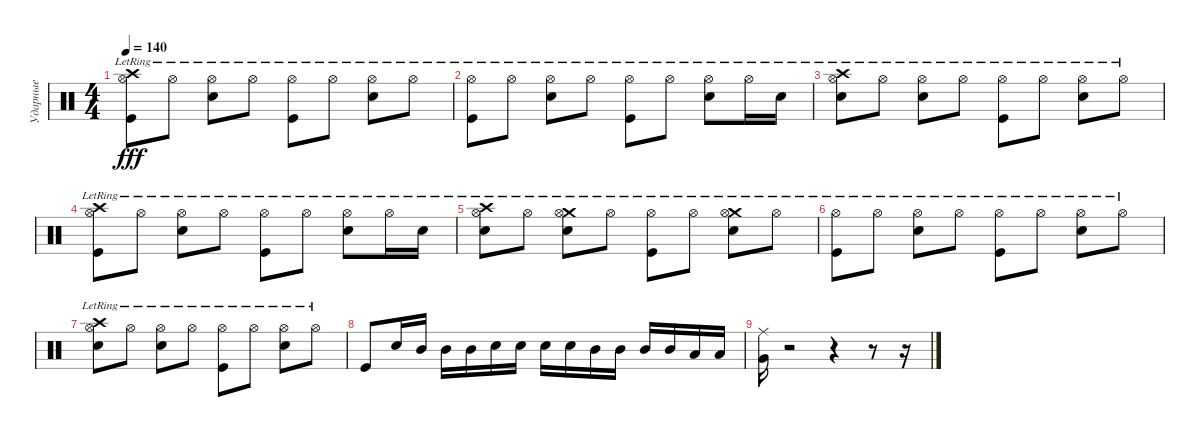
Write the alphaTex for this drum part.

\track ("Ударные" "Ударные") {instrument percussion}
\staff {score}
\articulation defaults
\ts (4 4)
\tempo 140
\clef neutral
\ks c
("Crash high (hit)"{lr} "Kick (hit)"{lr} "Hi-Hat (open)"{lr}).8{dy fff} "Hi-Hat (open)"{lr}.8 ("Electric Snare (hit)"{lr} "Hi-Hat (open)"{lr}).8 "Hi-Hat (open)"{lr}.8 ("Kick (hit)"{lr} "Hi-Hat (open)"{lr}).8 "Hi-Hat (open)"{lr}.8 ("Electric Snare (hit)"{lr} "Hi-Hat (open)"{lr}).8 "Hi-Hat (open)"{lr}.8 |
("Kick (hit)"{lr} "Hi-Hat (open)"{lr}).8 "Hi-Hat (open)"{lr}.8 ("Electric Snare (hit)"{lr} "Hi-Hat (open)"{lr}).8 "Hi-Hat (open)"{lr}.8 ("Kick (hit)"{lr} "Hi-Hat (open)"{lr}).8 "Hi-Hat (open)"{lr}.8 ("Electric Snare (hit)"{lr} "Hi-Hat (open)"{lr}).8 "Hi-Hat (open)"{lr}.16 "Electric Snare (hit)"{lr}.16 |
("Crash high (hit)"{lr} "Electric Snare (hit)"{lr} "Hi-Hat (open)"{lr}).8 "Hi-Hat (open)"{lr}.8 ("Electric Snare (hit)"{lr} "Hi-Hat (open)"{lr}).8 "Hi-Hat (open)"{lr}.8 ("Kick (hit)"{lr} "Hi-Hat (open)"{lr}).8 "Hi-Hat (open)"{lr}.8 ("Electric Snare (hit)"{lr} "Hi-Hat (open)"{lr}).8 "Hi-Hat (open)"{lr}.8 |
("Crash high (hit)" "Kick (hit)"{lr} "Hi-Hat (open)"{lr}).8 "Hi-Hat (open)"{lr}.8 ("Electric Snare (hit)"{lr} "Hi-Hat (open)"{lr}).8 "Hi-Hat (open)"{lr}.8 ("Kick (hit)"{lr} "Hi-Hat (open)"{lr}).8 "Hi-Hat (open)"{lr}.8 ("Electric Snare (hit)"{lr} "Hi-Hat (open)"{lr}).8 "Hi-Hat (open)"{lr}.16 "Electric Snare (hit)"{lr}.16 |
("Crash high (hit)"{lr} "Electric Snare (hit)"{lr} "Hi-Hat (open)"{lr}).8 "Hi-Hat (open)"{lr}.8 ("Crash medium (hit)" "Electric Snare (hit)"{lr} "Hi-Hat (open)"{lr}).8 "Hi-Hat (open)"{lr}.8 ("Kick (hit)"{lr} "Hi-Hat (open)"{lr}).8 "Hi-Hat (open)"{lr}.8 ("Crash medium (hit)" "Electric Snare (hit)"{lr} "Hi-Hat (open)"{lr}).8 "Hi-Hat (open)"{lr}.8 |
("Kick (hit)"{lr} "Hi-Hat (open)"{lr}).8 "Hi-Hat (open)"{lr}.8 ("Electric Snare (hit)"{lr} "Hi-Hat (open)"{lr}).8 "Hi-Hat (open)"{lr}.8 ("Kick (hit)"{lr} "Hi-Hat (open)"{lr}).8 "Hi-Hat (open)"{lr}.8 ("Electric Snare (hit)"{lr} "Hi-Hat (open)"{lr}).8 "Hi-Hat (open)"{lr}.8 |
("Crash high (hit)"{lr} "Electric Snare (hit)"{lr} "Hi-Hat (open)"{lr}).8 "Hi-Hat (open)"{lr}.8 ("Electric Snare (hit)"{lr} "Hi-Hat (open)"{lr}).8 "Hi-Hat (open)"{lr}.8 ("Kick (hit)"{lr} "Hi-Hat (open)"{lr}).8 "Hi-Hat (open)"{lr}.8 ("Electric Snare (hit)"{lr} "Hi-Hat (open)"{lr}).8 "Hi-Hat (open)"{lr}.8 |
"Kick (hit)".8 "Electric Snare (hit)".16 "Mid Tom (hit)".16 "Mid Tom (hit)".16 "Mid Tom (hit)".16 "Electric Snare (hit)".16 "Electric Snare (hit)".16 "Electric Snare (hit)".16 "Electric Snare (hit)".16 "Mid Tom (hit)".16 "Mid Tom (hit)".16 "Mid Tom (hit)".16 "Mid Tom (hit)".16 "Low Tom (hit)".16 "Low Tom (hit)".16 |
("Ride (middle)" "Very Low Tom (hit)").16 r.2 r.4 r.8 r.16
